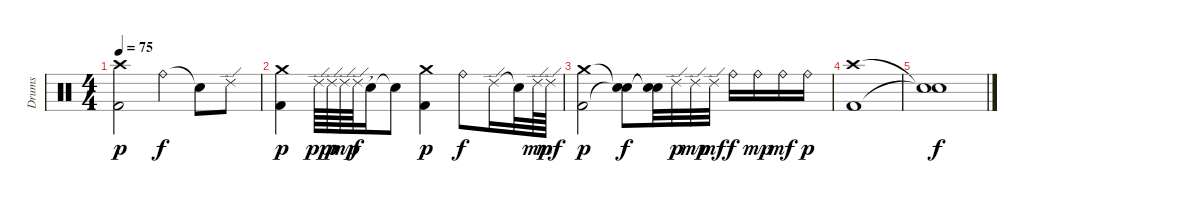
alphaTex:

\track ("Drums" "Drums") {instrument percussion}
\staff {score}
\articulation defaults
\ts (4 4)
\tempo 75
\clef neutral
\ks c
("Kick (hit) 2" "Crash high (hit)").2{dy p} "Ride (bell)".4{dy f} "Snare (hit)"{t}.8 "Ride (edge) 2".8 |
("Kick (hit) 2" "Crash medium (hit)").4{dy p} "Ride (edge) 2".64{dy pp} "Ride (edge) 2".64{dy p} "Ride (edge) 2".64{dy mp} "Ride (edge) 2".64{dy f} "Snare (hit)"{t}.16 "Snare (hit)"{t}.8 ("Kick (hit) 2" "Crash medium (hit)").4{dy p} "Ride (bell)".8{dy f} "Ride (edge) 2".16 "Snare (hit)"{t}.32 "Ride (edge) 2".64{dy mp} "Ride (edge) 2".64{dy mf} |
("Kick (hit) 2" "Crash medium (hit)").2{dy p} ("Snare (hit)"{t} "Snare (hit)"{t}).8{dy f} ("Snare (hit)"{t} "Snare (hit)"{t}).32 "Ride (edge) 2".32{dy p} "Ride (edge) 2".32{dy mp} "Ride (edge) 2".32{dy mf} "Ride (bell)".16{dy f} "Ride (bell)".16{dy mp} "Ride (bell)".16{dy mf} "Ride (bell)".16{dy p} |
("Kick (hit) 2" "Crash high (hit)").1 |
("Snare (hit)"{t} "Snare (hit)"{t}).1{dy f}
